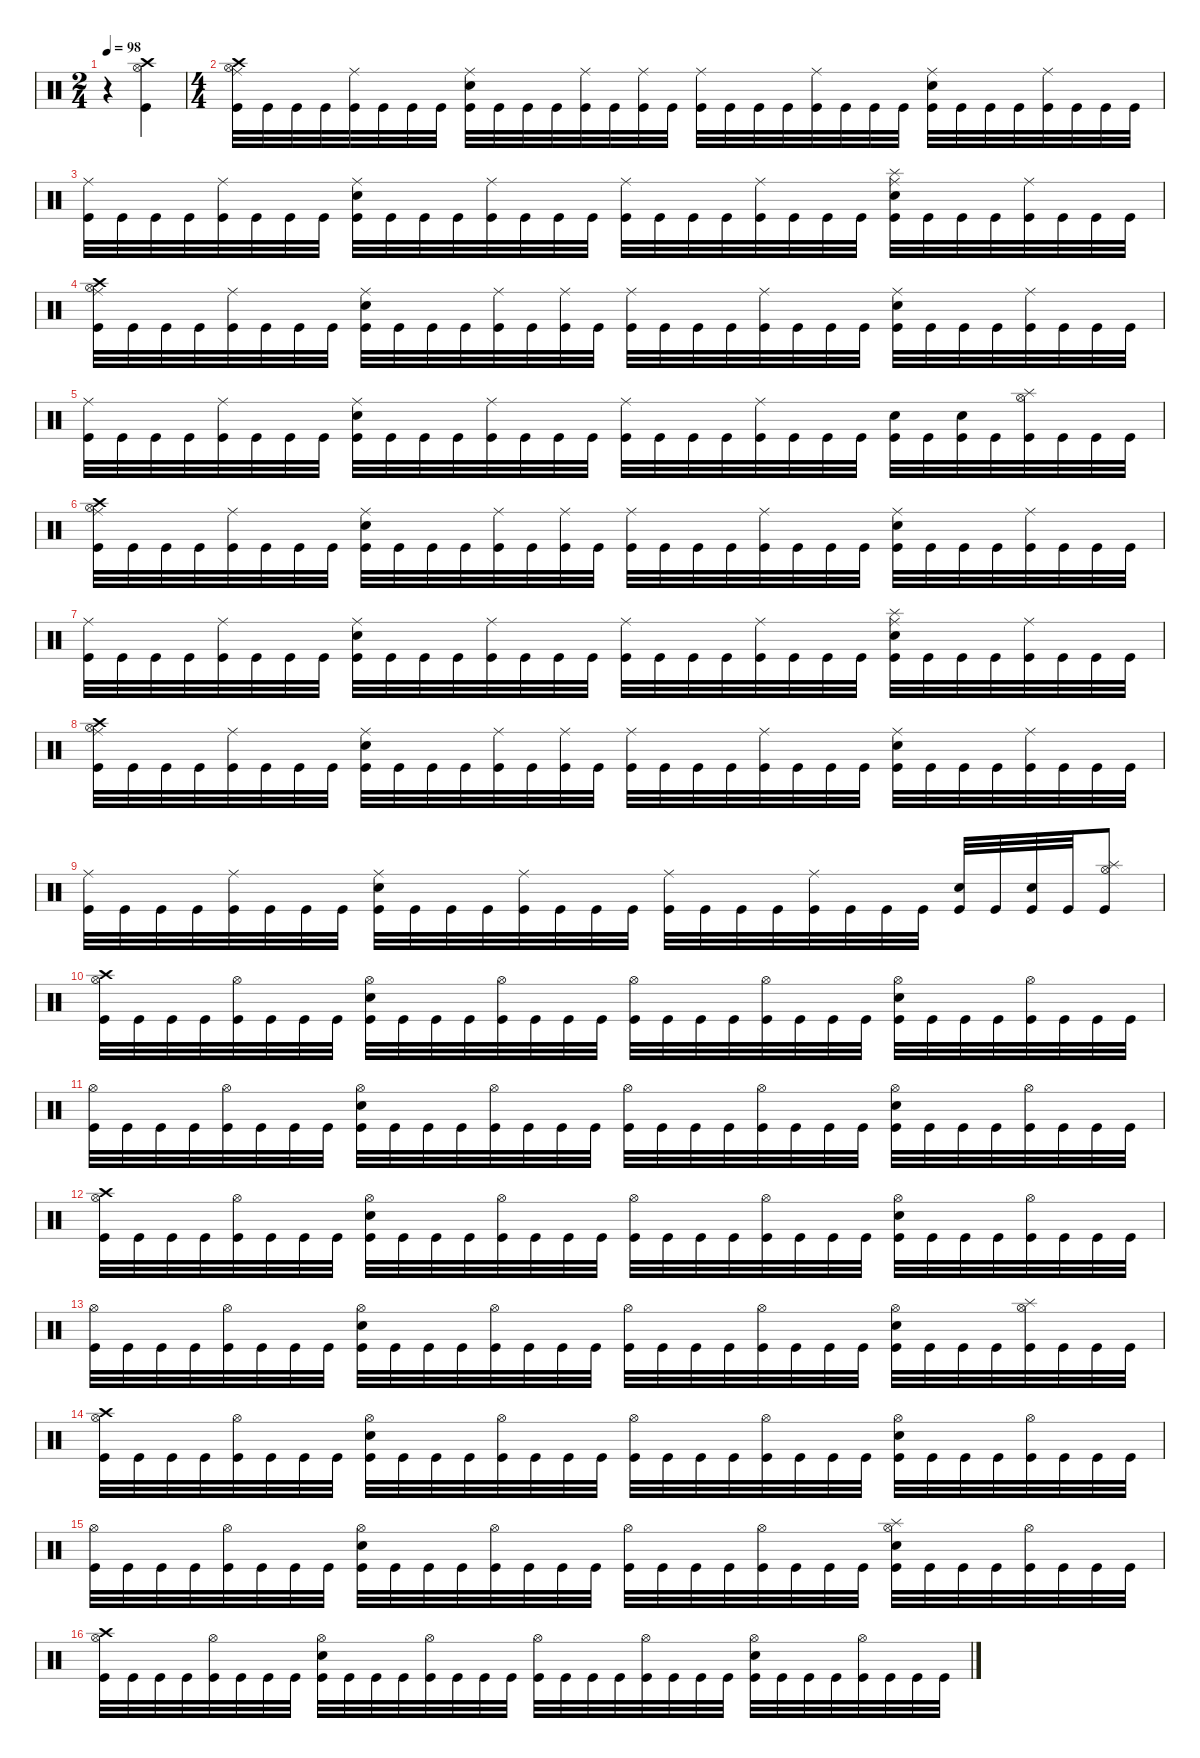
\defaultSystemsLayout 4
\hideDynamics
\bracketExtendMode nobrackets
\singleTrackTrackNamePolicy hidden
\multiTrackTrackNamePolicy hidden
\firstSystemTrackNameMode fullname
\otherSystemsTrackNameOrientation horizontal
\track ("Drums" "drm.") {instrument percussion}
\staff {score}
\articulation defaults
\ts (2 4)
\beaming (8 2 2)
\tempo 98
\clef neutral
\ks c
r.4{dy f beam Down} ("Crash high (hit)" "Hi-Hat (open)" "Kick (hit)").4{beam Down} |
\ts (4 4)
\beaming (8 2 2 2 2)
("Crash high (hit)" "Hi-Hat (open)" "Ride (middle)" "Kick (hit)").32{beam Down} "Kick (hit)".32{beam Down} "Kick (hit)".32{beam Down} "Kick (hit)".32{beam Down} ("Ride (middle)" "Kick (hit)").32{beam Down} "Kick (hit)".32{beam Down} "Kick (hit)".32{beam Down} "Kick (hit)".32{beam Down} ("Ride (middle)" "Snare (hit) 2" "Kick (hit)").32{beam Down} "Kick (hit)".32{beam Down} "Kick (hit)".32{beam Down} "Kick (hit)".32{beam Down} ("Ride (middle)" "Kick (hit)").32{beam Down} "Kick (hit)".32{beam Down} ("Ride (middle)" "Kick (hit)").32{beam Down} "Kick (hit)".32{beam Down} ("Ride (middle)" "Kick (hit)").32{beam Down} "Kick (hit)".32{beam Down} "Kick (hit)".32{beam Down} "Kick (hit)".32{beam Down} ("Ride (middle)" "Kick (hit)").32{beam Down} "Kick (hit)".32{beam Down} "Kick (hit)".32{beam Down} "Kick (hit)".32{beam Down} ("Ride (middle)" "Snare (hit) 2" "Kick (hit)").32{beam Down} "Kick (hit)".32{beam Down} "Kick (hit)".32{beam Down} "Kick (hit)".32{beam Down} ("Ride (middle)" "Kick (hit)").32{beam Down} "Kick (hit)".32{beam Down} "Kick (hit)".32{beam Down} "Kick (hit)".32{beam Down} |
("Ride (middle)" "Kick (hit)").32{beam Down} "Kick (hit)".32{beam Down} "Kick (hit)".32{beam Down} "Kick (hit)".32{beam Down} ("Ride (middle)" "Kick (hit)").32{beam Down} "Kick (hit)".32{beam Down} "Kick (hit)".32{beam Down} "Kick (hit)".32{beam Down} ("Ride (middle)" "Snare (hit) 2" "Kick (hit)").32{beam Down} "Kick (hit)".32{beam Down} "Kick (hit)".32{beam Down} "Kick (hit)".32{beam Down} ("Ride (middle)" "Kick (hit)").32{beam Down} "Kick (hit)".32{beam Down} "Kick (hit)".32{beam Down} "Kick (hit)".32{beam Down} ("Ride (middle)" "Kick (hit)").32{beam Down} "Kick (hit)".32{beam Down} "Kick (hit)".32{beam Down} "Kick (hit)".32{beam Down} ("Ride (middle)" "Kick (hit)").32{beam Down} "Kick (hit)".32{beam Down} "Kick (hit)".32{beam Down} "Kick (hit)".32{beam Down} ("Ride (middle)" "Splash (hit)" "Snare (hit) 2" "Kick (hit)").32{beam Down} "Kick (hit)".32{beam Down} "Kick (hit)".32{beam Down} "Kick (hit)".32{beam Down} ("Ride (middle)" "Kick (hit)").32{beam Down} "Kick (hit)".32{beam Down} "Kick (hit)".32{beam Down} "Kick (hit)".32{beam Down} |
("Crash high (hit)" "Hi-Hat (open)" "Ride (middle)" "Kick (hit)").32{beam Down} "Kick (hit)".32{beam Down} "Kick (hit)".32{beam Down} "Kick (hit)".32{beam Down} ("Ride (middle)" "Kick (hit)").32{beam Down} "Kick (hit)".32{beam Down} "Kick (hit)".32{beam Down} "Kick (hit)".32{beam Down} ("Ride (middle)" "Snare (hit) 2" "Kick (hit)").32{beam Down} "Kick (hit)".32{beam Down} "Kick (hit)".32{beam Down} "Kick (hit)".32{beam Down} ("Ride (middle)" "Kick (hit)").32{beam Down} "Kick (hit)".32{beam Down} ("Ride (middle)" "Kick (hit)").32{beam Down} "Kick (hit)".32{beam Down} ("Ride (middle)" "Kick (hit)").32{beam Down} "Kick (hit)".32{beam Down} "Kick (hit)".32{beam Down} "Kick (hit)".32{beam Down} ("Ride (middle)" "Kick (hit)").32{beam Down} "Kick (hit)".32{beam Down} "Kick (hit)".32{beam Down} "Kick (hit)".32{beam Down} ("Ride (middle)" "Snare (hit) 2" "Kick (hit)").32{beam Down} "Kick (hit)".32{beam Down} "Kick (hit)".32{beam Down} "Kick (hit)".32{beam Down} ("Ride (middle)" "Kick (hit)").32{beam Down} "Kick (hit)".32{beam Down} "Kick (hit)".32{beam Down} "Kick (hit)".32{beam Down} |
("Ride (middle)" "Kick (hit)").32{beam Down} "Kick (hit)".32{beam Down} "Kick (hit)".32{beam Down} "Kick (hit)".32{beam Down} ("Ride (middle)" "Kick (hit)").32{beam Down} "Kick (hit)".32{beam Down} "Kick (hit)".32{beam Down} "Kick (hit)".32{beam Down} ("Ride (middle)" "Snare (hit) 2" "Kick (hit)").32{beam Down} "Kick (hit)".32{beam Down} "Kick (hit)".32{beam Down} "Kick (hit)".32{beam Down} ("Ride (middle)" "Kick (hit)").32{beam Down} "Kick (hit)".32{beam Down} "Kick (hit)".32{beam Down} "Kick (hit)".32{beam Down} ("Ride (middle)" "Kick (hit)").32{beam Down} "Kick (hit)".32{beam Down} "Kick (hit)".32{beam Down} "Kick (hit)".32{beam Down} ("Ride (middle)" "Kick (hit)").32{beam Down} "Kick (hit)".32{beam Down} "Kick (hit)".32{beam Down} "Kick (hit)".32{beam Down} ("Snare (hit) 2" "Kick (hit)").32{beam Down} "Kick (hit)".32{beam Down} ("Snare (hit) 2" "Kick (hit)").32{beam Down} "Kick (hit)".32{beam Down} ("Splash (hit)" "Hi-Hat (open)" "Kick (hit)").32{beam Down} "Kick (hit)".32{beam Down} "Kick (hit)".32{beam Down} "Kick (hit)".32{beam Down} |
("Crash high (hit)" "Hi-Hat (open)" "Ride (middle)" "Kick (hit)").32{beam Down} "Kick (hit)".32{beam Down} "Kick (hit)".32{beam Down} "Kick (hit)".32{beam Down} ("Ride (middle)" "Kick (hit)").32{beam Down} "Kick (hit)".32{beam Down} "Kick (hit)".32{beam Down} "Kick (hit)".32{beam Down} ("Ride (middle)" "Snare (hit) 2" "Kick (hit)").32{beam Down} "Kick (hit)".32{beam Down} "Kick (hit)".32{beam Down} "Kick (hit)".32{beam Down} ("Ride (middle)" "Kick (hit)").32{beam Down} "Kick (hit)".32{beam Down} ("Ride (middle)" "Kick (hit)").32{beam Down} "Kick (hit)".32{beam Down} ("Ride (middle)" "Kick (hit)").32{beam Down} "Kick (hit)".32{beam Down} "Kick (hit)".32{beam Down} "Kick (hit)".32{beam Down} ("Ride (middle)" "Kick (hit)").32{beam Down} "Kick (hit)".32{beam Down} "Kick (hit)".32{beam Down} "Kick (hit)".32{beam Down} ("Ride (middle)" "Snare (hit) 2" "Kick (hit)").32{beam Down} "Kick (hit)".32{beam Down} "Kick (hit)".32{beam Down} "Kick (hit)".32{beam Down} ("Ride (middle)" "Kick (hit)").32{beam Down} "Kick (hit)".32{beam Down} "Kick (hit)".32{beam Down} "Kick (hit)".32{beam Down} |
("Ride (middle)" "Kick (hit)").32{beam Down} "Kick (hit)".32{beam Down} "Kick (hit)".32{beam Down} "Kick (hit)".32{beam Down} ("Ride (middle)" "Kick (hit)").32{beam Down} "Kick (hit)".32{beam Down} "Kick (hit)".32{beam Down} "Kick (hit)".32{beam Down} ("Ride (middle)" "Snare (hit) 2" "Kick (hit)").32{beam Down} "Kick (hit)".32{beam Down} "Kick (hit)".32{beam Down} "Kick (hit)".32{beam Down} ("Ride (middle)" "Kick (hit)").32{beam Down} "Kick (hit)".32{beam Down} "Kick (hit)".32{beam Down} "Kick (hit)".32{beam Down} ("Ride (middle)" "Kick (hit)").32{beam Down} "Kick (hit)".32{beam Down} "Kick (hit)".32{beam Down} "Kick (hit)".32{beam Down} ("Ride (middle)" "Kick (hit)").32{beam Down} "Kick (hit)".32{beam Down} "Kick (hit)".32{beam Down} "Kick (hit)".32{beam Down} ("Ride (middle)" "Splash (hit)" "Snare (hit) 2" "Kick (hit)").32{beam Down} "Kick (hit)".32{beam Down} "Kick (hit)".32{beam Down} "Kick (hit)".32{beam Down} ("Ride (middle)" "Kick (hit)").32{beam Down} "Kick (hit)".32{beam Down} "Kick (hit)".32{beam Down} "Kick (hit)".32{beam Down} |
("Crash high (hit)" "Hi-Hat (open)" "Ride (middle)" "Kick (hit)").32{beam Down} "Kick (hit)".32{beam Down} "Kick (hit)".32{beam Down} "Kick (hit)".32{beam Down} ("Ride (middle)" "Kick (hit)").32{beam Down} "Kick (hit)".32{beam Down} "Kick (hit)".32{beam Down} "Kick (hit)".32{beam Down} ("Ride (middle)" "Snare (hit) 2" "Kick (hit)").32{beam Down} "Kick (hit)".32{beam Down} "Kick (hit)".32{beam Down} "Kick (hit)".32{beam Down} ("Ride (middle)" "Kick (hit)").32{beam Down} "Kick (hit)".32{beam Down} ("Ride (middle)" "Kick (hit)").32{beam Down} "Kick (hit)".32{beam Down} ("Ride (middle)" "Kick (hit)").32{beam Down} "Kick (hit)".32{beam Down} "Kick (hit)".32{beam Down} "Kick (hit)".32{beam Down} ("Ride (middle)" "Kick (hit)").32{beam Down} "Kick (hit)".32{beam Down} "Kick (hit)".32{beam Down} "Kick (hit)".32{beam Down} ("Ride (middle)" "Snare (hit) 2" "Kick (hit)").32{beam Down} "Kick (hit)".32{beam Down} "Kick (hit)".32{beam Down} "Kick (hit)".32{beam Down} ("Ride (middle)" "Kick (hit)").32{beam Down} "Kick (hit)".32{beam Down} "Kick (hit)".32{beam Down} "Kick (hit)".32{beam Down} |
("Ride (middle)" "Kick (hit)").32{beam Down} "Kick (hit)".32{beam Down} "Kick (hit)".32{beam Down} "Kick (hit)".32{beam Down} ("Ride (middle)" "Kick (hit)").32{beam Down} "Kick (hit)".32{beam Down} "Kick (hit)".32{beam Down} "Kick (hit)".32{beam Down} ("Ride (middle)" "Snare (hit) 2" "Kick (hit)").32{beam Down} "Kick (hit)".32{beam Down} "Kick (hit)".32{beam Down} "Kick (hit)".32{beam Down} ("Ride (middle)" "Kick (hit)").32{beam Down} "Kick (hit)".32{beam Down} "Kick (hit)".32{beam Down} "Kick (hit)".32{beam Down} ("Ride (middle)" "Kick (hit)").32{beam Down} "Kick (hit)".32{beam Down} "Kick (hit)".32{beam Down} "Kick (hit)".32{beam Down} ("Ride (middle)" "Kick (hit)").32{beam Down} "Kick (hit)".32{beam Down} "Kick (hit)".32{beam Down} "Kick (hit)".32{beam Down} ("Snare (hit) 2" "Kick (hit)").32{beam Up} "Kick (hit)".32{beam Up} ("Snare (hit) 2" "Kick (hit)").32{beam Up} "Kick (hit)".32{beam Up} ("Splash (hit)" "Hi-Hat (open)" "Kick (hit)").8{beam Up} |
("Crash high (hit)" "Hi-Hat (open)" "Kick (hit)").32{beam Down} "Kick (hit)".32{beam Down} "Kick (hit)".32{beam Down} "Kick (hit)".32{beam Down} ("Hi-Hat (open)" "Kick (hit)").32{beam Down} "Kick (hit)".32{beam Down} "Kick (hit)".32{beam Down} "Kick (hit)".32{beam Down} ("Hi-Hat (open)" "Snare (hit) 2" "Kick (hit)").32{beam Down} "Kick (hit)".32{beam Down} "Kick (hit)".32{beam Down} "Kick (hit)".32{beam Down} ("Hi-Hat (open)" "Kick (hit)").32{beam Down} "Kick (hit)".32{beam Down} "Kick (hit)".32{beam Down} "Kick (hit)".32{beam Down} ("Hi-Hat (open)" "Kick (hit)").32{beam Down} "Kick (hit)".32{beam Down} "Kick (hit)".32{beam Down} "Kick (hit)".32{beam Down} ("Hi-Hat (open)" "Kick (hit)").32{beam Down} "Kick (hit)".32{beam Down} "Kick (hit)".32{beam Down} "Kick (hit)".32{beam Down} ("Hi-Hat (open)" "Snare (hit) 2" "Kick (hit)").32{beam Down} "Kick (hit)".32{beam Down} "Kick (hit)".32{beam Down} "Kick (hit)".32{beam Down} ("Hi-Hat (open)" "Kick (hit)").32{beam Down} "Kick (hit)".32{beam Down} "Kick (hit)".32{beam Down} "Kick (hit)".32{beam Down} |
("Hi-Hat (open)" "Kick (hit)").32{beam Down} "Kick (hit)".32{beam Down} "Kick (hit)".32{beam Down} "Kick (hit)".32{beam Down} ("Hi-Hat (open)" "Kick (hit)").32{beam Down} "Kick (hit)".32{beam Down} "Kick (hit)".32{beam Down} "Kick (hit)".32{beam Down} ("Hi-Hat (open)" "Snare (hit) 2" "Kick (hit)").32{beam Down} "Kick (hit)".32{beam Down} "Kick (hit)".32{beam Down} "Kick (hit)".32{beam Down} ("Hi-Hat (open)" "Kick (hit)").32{beam Down} "Kick (hit)".32{beam Down} "Kick (hit)".32{beam Down} "Kick (hit)".32{beam Down} ("Hi-Hat (open)" "Kick (hit)").32{beam Down} "Kick (hit)".32{beam Down} "Kick (hit)".32{beam Down} "Kick (hit)".32{beam Down} ("Hi-Hat (open)" "Kick (hit)").32{beam Down} "Kick (hit)".32{beam Down} "Kick (hit)".32{beam Down} "Kick (hit)".32{beam Down} ("Hi-Hat (open)" "Snare (hit) 2" "Kick (hit)").32{beam Down} "Kick (hit)".32{beam Down} "Kick (hit)".32{beam Down} "Kick (hit)".32{beam Down} ("Hi-Hat (open)" "Kick (hit)").32{beam Down} "Kick (hit)".32{beam Down} "Kick (hit)".32{beam Down} "Kick (hit)".32{beam Down} |
("Crash high (hit)" "Hi-Hat (open)" "Kick (hit)").32{beam Down} "Kick (hit)".32{beam Down} "Kick (hit)".32{beam Down} "Kick (hit)".32{beam Down} ("Hi-Hat (open)" "Kick (hit)").32{beam Down} "Kick (hit)".32{beam Down} "Kick (hit)".32{beam Down} "Kick (hit)".32{beam Down} ("Hi-Hat (open)" "Snare (hit) 2" "Kick (hit)").32{beam Down} "Kick (hit)".32{beam Down} "Kick (hit)".32{beam Down} "Kick (hit)".32{beam Down} ("Hi-Hat (open)" "Kick (hit)").32{beam Down} "Kick (hit)".32{beam Down} "Kick (hit)".32{beam Down} "Kick (hit)".32{beam Down} ("Hi-Hat (open)" "Kick (hit)").32{beam Down} "Kick (hit)".32{beam Down} "Kick (hit)".32{beam Down} "Kick (hit)".32{beam Down} ("Hi-Hat (open)" "Kick (hit)").32{beam Down} "Kick (hit)".32{beam Down} "Kick (hit)".32{beam Down} "Kick (hit)".32{beam Down} ("Hi-Hat (open)" "Snare (hit) 2" "Kick (hit)").32{beam Down} "Kick (hit)".32{beam Down} "Kick (hit)".32{beam Down} "Kick (hit)".32{beam Down} ("Hi-Hat (open)" "Kick (hit)").32{beam Down} "Kick (hit)".32{beam Down} "Kick (hit)".32{beam Down} "Kick (hit)".32{beam Down} |
("Hi-Hat (open)" "Kick (hit)").32{beam Down} "Kick (hit)".32{beam Down} "Kick (hit)".32{beam Down} "Kick (hit)".32{beam Down} ("Hi-Hat (open)" "Kick (hit)").32{beam Down} "Kick (hit)".32{beam Down} "Kick (hit)".32{beam Down} "Kick (hit)".32{beam Down} ("Hi-Hat (open)" "Snare (hit) 2" "Kick (hit)").32{beam Down} "Kick (hit)".32{beam Down} "Kick (hit)".32{beam Down} "Kick (hit)".32{beam Down} ("Hi-Hat (open)" "Kick (hit)").32{beam Down} "Kick (hit)".32{beam Down} "Kick (hit)".32{beam Down} "Kick (hit)".32{beam Down} ("Hi-Hat (open)" "Kick (hit)").32{beam Down} "Kick (hit)".32{beam Down} "Kick (hit)".32{beam Down} "Kick (hit)".32{beam Down} ("Hi-Hat (open)" "Kick (hit)").32{beam Down} "Kick (hit)".32{beam Down} "Kick (hit)".32{beam Down} "Kick (hit)".32{beam Down} ("Hi-Hat (open)" "Snare (hit) 2" "Kick (hit)").32{beam Down} "Kick (hit)".32{beam Down} "Kick (hit)".32{beam Down} "Kick (hit)".32{beam Down} ("Splash (hit)" "Hi-Hat (open)" "Kick (hit)").32{beam Down} "Kick (hit)".32{beam Down} "Kick (hit)".32{beam Down} "Kick (hit)".32{beam Down} |
("Crash high (hit)" "Hi-Hat (open)" "Kick (hit)").32{beam Down} "Kick (hit)".32{beam Down} "Kick (hit)".32{beam Down} "Kick (hit)".32{beam Down} ("Hi-Hat (open)" "Kick (hit)").32{beam Down} "Kick (hit)".32{beam Down} "Kick (hit)".32{beam Down} "Kick (hit)".32{beam Down} ("Hi-Hat (open)" "Snare (hit) 2" "Kick (hit)").32{beam Down} "Kick (hit)".32{beam Down} "Kick (hit)".32{beam Down} "Kick (hit)".32{beam Down} ("Hi-Hat (open)" "Kick (hit)").32{beam Down} "Kick (hit)".32{beam Down} "Kick (hit)".32{beam Down} "Kick (hit)".32{beam Down} ("Hi-Hat (open)" "Kick (hit)").32{beam Down} "Kick (hit)".32{beam Down} "Kick (hit)".32{beam Down} "Kick (hit)".32{beam Down} ("Hi-Hat (open)" "Kick (hit)").32{beam Down} "Kick (hit)".32{beam Down} "Kick (hit)".32{beam Down} "Kick (hit)".32{beam Down} ("Hi-Hat (open)" "Snare (hit) 2" "Kick (hit)").32{beam Down} "Kick (hit)".32{beam Down} "Kick (hit)".32{beam Down} "Kick (hit)".32{beam Down} ("Hi-Hat (open)" "Kick (hit)").32{beam Down} "Kick (hit)".32{beam Down} "Kick (hit)".32{beam Down} "Kick (hit)".32{beam Down} |
("Hi-Hat (open)" "Kick (hit)").32{beam Down} "Kick (hit)".32{beam Down} "Kick (hit)".32{beam Down} "Kick (hit)".32{beam Down} ("Hi-Hat (open)" "Kick (hit)").32{beam Down} "Kick (hit)".32{beam Down} "Kick (hit)".32{beam Down} "Kick (hit)".32{beam Down} ("Hi-Hat (open)" "Snare (hit) 2" "Kick (hit)").32{beam Down} "Kick (hit)".32{beam Down} "Kick (hit)".32{beam Down} "Kick (hit)".32{beam Down} ("Hi-Hat (open)" "Kick (hit)").32{beam Down} "Kick (hit)".32{beam Down} "Kick (hit)".32{beam Down} "Kick (hit)".32{beam Down} ("Hi-Hat (open)" "Kick (hit)").32{beam Down} "Kick (hit)".32{beam Down} "Kick (hit)".32{beam Down} "Kick (hit)".32{beam Down} ("Hi-Hat (open)" "Kick (hit)").32{beam Down} "Kick (hit)".32{beam Down} "Kick (hit)".32{beam Down} "Kick (hit)".32{beam Down} ("Splash (hit)" "Hi-Hat (open)" "Snare (hit) 2" "Kick (hit)").32{beam Down} "Kick (hit)".32{beam Down} "Kick (hit)".32{beam Down} "Kick (hit)".32{beam Down} ("Hi-Hat (open)" "Kick (hit)").32{beam Down} "Kick (hit)".32{beam Down} "Kick (hit)".32{beam Down} "Kick (hit)".32{beam Down} |
("Crash high (hit)" "Hi-Hat (open)" "Kick (hit)").32{beam Down} "Kick (hit)".32{beam Down} "Kick (hit)".32{beam Down} "Kick (hit)".32{beam Down} ("Hi-Hat (open)" "Kick (hit)").32{beam Down} "Kick (hit)".32{beam Down} "Kick (hit)".32{beam Down} "Kick (hit)".32{beam Down} ("Hi-Hat (open)" "Snare (hit) 2" "Kick (hit)").32{beam Down} "Kick (hit)".32{beam Down} "Kick (hit)".32{beam Down} "Kick (hit)".32{beam Down} ("Hi-Hat (open)" "Kick (hit)").32{beam Down} "Kick (hit)".32{beam Down} "Kick (hit)".32{beam Down} "Kick (hit)".32{beam Down} ("Hi-Hat (open)" "Kick (hit)").32{beam Down} "Kick (hit)".32{beam Down} "Kick (hit)".32{beam Down} "Kick (hit)".32{beam Down} ("Hi-Hat (open)" "Kick (hit)").32{beam Down} "Kick (hit)".32{beam Down} "Kick (hit)".32{beam Down} "Kick (hit)".32{beam Down} ("Hi-Hat (open)" "Snare (hit) 2" "Kick (hit)").32{beam Down} "Kick (hit)".32{beam Down} "Kick (hit)".32{beam Down} "Kick (hit)".32{beam Down} ("Hi-Hat (open)" "Kick (hit)").32{beam Down} "Kick (hit)".32{beam Down} "Kick (hit)".32{beam Down} "Kick (hit)".32{beam Down}
